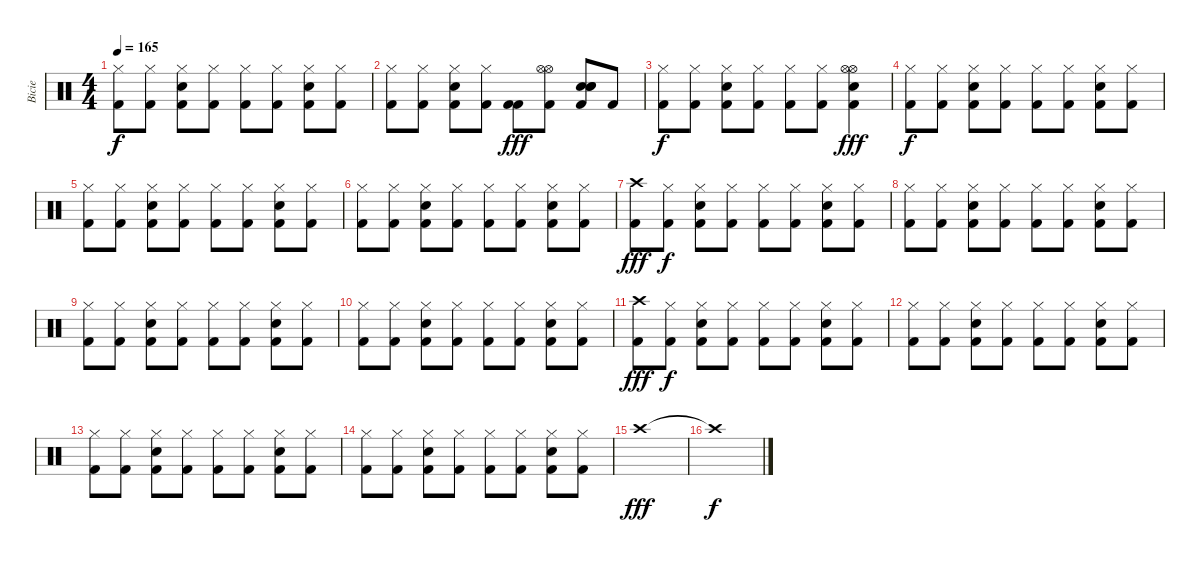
\track ("Bicie" "Bicie") {instrument percussion}
\staff {score}
\articulation defaults
\ts (4 4)
\tempo 165
\clef neutral
\ks c
("Hi-Hat (closed)" "Kick (hit) 2").8{dy f} ("Hi-Hat (closed)" "Kick (hit) 2").8 ("Electric Snare (hit)" "Hi-Hat (closed)" "Kick (hit) 2").8 ("Hi-Hat (closed)" "Kick (hit) 2").8 ("Hi-Hat (closed)" "Kick (hit) 2").8 ("Hi-Hat (closed)" "Kick (hit) 2").8 ("Electric Snare (hit)" "Hi-Hat (closed)" "Kick (hit) 2").8 ("Hi-Hat (closed)" "Kick (hit) 2").8 |
("Hi-Hat (closed)" "Kick (hit) 2").8 ("Hi-Hat (closed)" "Kick (hit) 2").8 ("Electric Snare (hit)" "Hi-Hat (closed)" "Kick (hit) 2").8 ("Hi-Hat (closed)" "Kick (hit) 2").8 ("Kick (hit) 2" "Kick (hit) 2").8{dy fff} ("Kick (hit) 2" "Hi-Hat (open)" "Hi-Hat (open)").8 ("Kick (hit) 2" "Electric Snare (hit)" "Electric Snare (hit)" "Electric Snare (hit)").8 "Kick (hit) 2".8 |
("Hi-Hat (closed)" "Kick (hit) 2").8{dy f} ("Hi-Hat (closed)" "Kick (hit) 2").8 ("Electric Snare (hit)" "Hi-Hat (closed)" "Kick (hit) 2").8 ("Hi-Hat (closed)" "Kick (hit) 2").8 ("Hi-Hat (closed)" "Kick (hit) 2").8 ("Hi-Hat (closed)" "Kick (hit) 2").8 ("Hi-Hat (open)" "Electric Snare (hit)" "Hi-Hat (open)" "Kick (hit) 2").4{dy fff} |
("Hi-Hat (closed)" "Kick (hit) 2").8{dy f} ("Hi-Hat (closed)" "Kick (hit) 2").8 ("Electric Snare (hit)" "Hi-Hat (closed)" "Kick (hit) 2").8 ("Hi-Hat (closed)" "Kick (hit) 2").8 ("Hi-Hat (closed)" "Kick (hit) 2").8 ("Hi-Hat (closed)" "Kick (hit) 2").8 ("Electric Snare (hit)" "Hi-Hat (closed)" "Kick (hit) 2").8 ("Hi-Hat (closed)" "Kick (hit) 2").8 |
("Hi-Hat (closed)" "Kick (hit) 2").8 ("Hi-Hat (closed)" "Kick (hit) 2").8 ("Electric Snare (hit)" "Hi-Hat (closed)" "Kick (hit) 2").8 ("Hi-Hat (closed)" "Kick (hit) 2").8 ("Hi-Hat (closed)" "Kick (hit) 2").8 ("Hi-Hat (closed)" "Kick (hit) 2").8 ("Electric Snare (hit)" "Hi-Hat (closed)" "Kick (hit) 2").8 ("Hi-Hat (closed)" "Kick (hit) 2").8 |
("Hi-Hat (closed)" "Kick (hit) 2").8 ("Hi-Hat (closed)" "Kick (hit) 2").8 ("Electric Snare (hit)" "Hi-Hat (closed)" "Kick (hit) 2").8 ("Hi-Hat (closed)" "Kick (hit) 2").8 ("Hi-Hat (closed)" "Kick (hit) 2").8 ("Hi-Hat (closed)" "Kick (hit) 2").8 ("Electric Snare (hit)" "Hi-Hat (closed)" "Kick (hit) 2").8 ("Hi-Hat (closed)" "Kick (hit) 2").8 |
("Crash high (hit)" "Kick (hit) 2").8{dy fff} ("Hi-Hat (closed)" "Kick (hit) 2").8{dy f} ("Electric Snare (hit)" "Hi-Hat (closed)" "Kick (hit) 2").8 ("Hi-Hat (closed)" "Kick (hit) 2").8 ("Hi-Hat (closed)" "Kick (hit) 2").8 ("Hi-Hat (closed)" "Kick (hit) 2").8 ("Electric Snare (hit)" "Hi-Hat (closed)" "Kick (hit) 2").8 ("Hi-Hat (closed)" "Kick (hit) 2").8 |
("Hi-Hat (closed)" "Kick (hit) 2").8 ("Hi-Hat (closed)" "Kick (hit) 2").8 ("Electric Snare (hit)" "Hi-Hat (closed)" "Kick (hit) 2").8 ("Hi-Hat (closed)" "Kick (hit) 2").8 ("Hi-Hat (closed)" "Kick (hit) 2").8 ("Hi-Hat (closed)" "Kick (hit) 2").8 ("Electric Snare (hit)" "Hi-Hat (closed)" "Kick (hit) 2").8 ("Hi-Hat (closed)" "Kick (hit) 2").8 |
("Hi-Hat (closed)" "Kick (hit) 2").8 ("Hi-Hat (closed)" "Kick (hit) 2").8 ("Electric Snare (hit)" "Hi-Hat (closed)" "Kick (hit) 2").8 ("Hi-Hat (closed)" "Kick (hit) 2").8 ("Hi-Hat (closed)" "Kick (hit) 2").8 ("Hi-Hat (closed)" "Kick (hit) 2").8 ("Electric Snare (hit)" "Hi-Hat (closed)" "Kick (hit) 2").8 ("Hi-Hat (closed)" "Kick (hit) 2").8 |
("Hi-Hat (closed)" "Kick (hit) 2").8 ("Hi-Hat (closed)" "Kick (hit) 2").8 ("Electric Snare (hit)" "Hi-Hat (closed)" "Kick (hit) 2").8 ("Hi-Hat (closed)" "Kick (hit) 2").8 ("Hi-Hat (closed)" "Kick (hit) 2").8 ("Hi-Hat (closed)" "Kick (hit) 2").8 ("Electric Snare (hit)" "Hi-Hat (closed)" "Kick (hit) 2").8 ("Hi-Hat (closed)" "Kick (hit) 2").8 |
("Crash high (hit)" "Kick (hit) 2").8{dy fff} ("Hi-Hat (closed)" "Kick (hit) 2").8{dy f} ("Electric Snare (hit)" "Hi-Hat (closed)" "Kick (hit) 2").8 ("Hi-Hat (closed)" "Kick (hit) 2").8 ("Hi-Hat (closed)" "Kick (hit) 2").8 ("Hi-Hat (closed)" "Kick (hit) 2").8 ("Electric Snare (hit)" "Hi-Hat (closed)" "Kick (hit) 2").8 ("Hi-Hat (closed)" "Kick (hit) 2").8 |
("Hi-Hat (closed)" "Kick (hit) 2").8 ("Hi-Hat (closed)" "Kick (hit) 2").8 ("Electric Snare (hit)" "Hi-Hat (closed)" "Kick (hit) 2").8 ("Hi-Hat (closed)" "Kick (hit) 2").8 ("Hi-Hat (closed)" "Kick (hit) 2").8 ("Hi-Hat (closed)" "Kick (hit) 2").8 ("Electric Snare (hit)" "Hi-Hat (closed)" "Kick (hit) 2").8 ("Hi-Hat (closed)" "Kick (hit) 2").8 |
("Hi-Hat (closed)" "Kick (hit) 2").8 ("Hi-Hat (closed)" "Kick (hit) 2").8 ("Electric Snare (hit)" "Hi-Hat (closed)" "Kick (hit) 2").8 ("Hi-Hat (closed)" "Kick (hit) 2").8 ("Hi-Hat (closed)" "Kick (hit) 2").8 ("Hi-Hat (closed)" "Kick (hit) 2").8 ("Electric Snare (hit)" "Hi-Hat (closed)" "Kick (hit) 2").8 ("Hi-Hat (closed)" "Kick (hit) 2").8 |
("Hi-Hat (closed)" "Kick (hit) 2").8 ("Hi-Hat (closed)" "Kick (hit) 2").8 ("Electric Snare (hit)" "Hi-Hat (closed)" "Kick (hit) 2").8 ("Hi-Hat (closed)" "Kick (hit) 2").8 ("Hi-Hat (closed)" "Kick (hit) 2").8 ("Hi-Hat (closed)" "Kick (hit) 2").8 ("Electric Snare (hit)" "Hi-Hat (closed)" "Kick (hit) 2").8 ("Hi-Hat (closed)" "Kick (hit) 2").8 |
"Crash high (hit)".1{dy fff} |
"Crash high (hit)"{t}.1{dy f}
